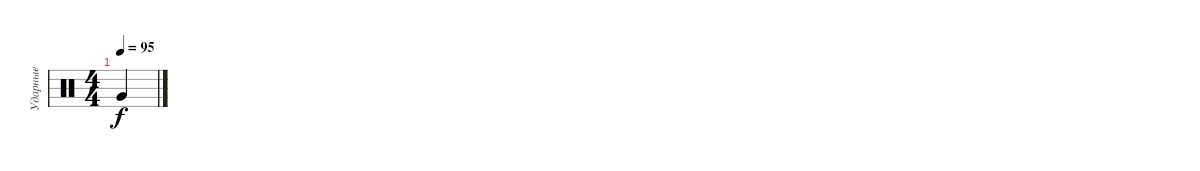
\track ("Ударные" "Ударные") {instrument percussion}
\staff {score}
\articulation defaults
\ts (4 4)
\tempo 95
\clef neutral
\ks c "Very Low Tom (hit)"{t}.4{dy f}
